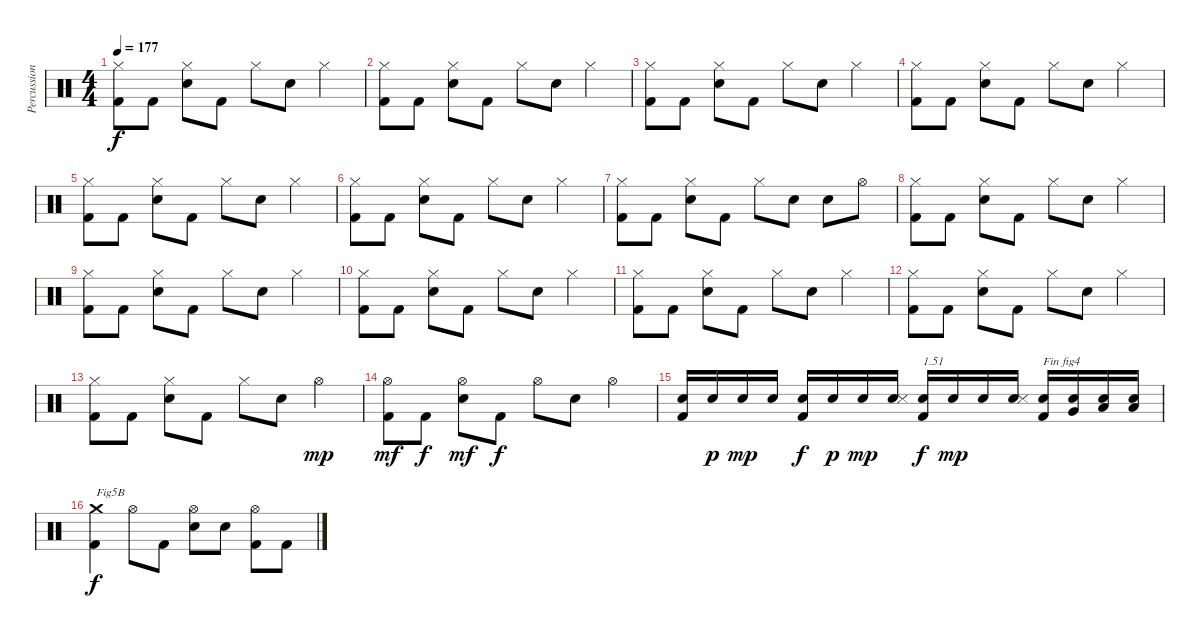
\track ("Percussions" "Percussion") {instrument percussion}
\staff {score}
\articulation defaults
\ts (4 4)
\tempo 177
\clef neutral
\ks c
("Kick (hit) 2" "Hi-Hat (closed)").8{dy f} "Kick (hit) 2".8 ("Electric Snare (hit)" "Hi-Hat (closed)").8 "Kick (hit) 2".8 "Hi-Hat (closed)".8 "Electric Snare (hit)".8 "Hi-Hat (closed)".4 |
("Kick (hit) 2" "Hi-Hat (closed)").8 "Kick (hit) 2".8 ("Electric Snare (hit)" "Hi-Hat (closed)").8 "Kick (hit) 2".8 "Hi-Hat (closed)".8 "Electric Snare (hit)".8 "Hi-Hat (closed)".4 |
("Kick (hit) 2" "Hi-Hat (closed)").8 "Kick (hit) 2".8 ("Electric Snare (hit)" "Hi-Hat (closed)").8 "Kick (hit) 2".8 "Hi-Hat (closed)".8 "Electric Snare (hit)".8 "Hi-Hat (closed)".4 |
("Kick (hit) 2" "Hi-Hat (closed)").8 "Kick (hit) 2".8 ("Electric Snare (hit)" "Hi-Hat (closed)").8 "Kick (hit) 2".8 "Hi-Hat (closed)".8 "Electric Snare (hit)".8 "Hi-Hat (closed)".4 |
("Kick (hit) 2" "Hi-Hat (closed)").8 "Kick (hit) 2".8 ("Electric Snare (hit)" "Hi-Hat (closed)").8 "Kick (hit) 2".8 "Hi-Hat (closed)".8 "Electric Snare (hit)".8 "Hi-Hat (closed)".4 |
("Kick (hit) 2" "Hi-Hat (closed)").8 "Kick (hit) 2".8 ("Electric Snare (hit)" "Hi-Hat (closed)").8 "Kick (hit) 2".8 "Hi-Hat (closed)".8 "Electric Snare (hit)".8 "Hi-Hat (closed)".4 |
("Kick (hit) 2" "Hi-Hat (closed)").8 "Kick (hit) 2".8 ("Electric Snare (hit)" "Hi-Hat (closed)").8 "Kick (hit) 2".8 "Hi-Hat (closed)".8 "Electric Snare (hit)".8 "Electric Snare (hit)".8 "Hi-Hat (open)".8 |
("Kick (hit) 2" "Hi-Hat (closed)").8 "Kick (hit) 2".8 ("Electric Snare (hit)" "Hi-Hat (closed)").8 "Kick (hit) 2".8 "Hi-Hat (closed)".8 "Electric Snare (hit)".8 "Hi-Hat (closed)".4 |
("Kick (hit) 2" "Hi-Hat (closed)").8 "Kick (hit) 2".8 ("Electric Snare (hit)" "Hi-Hat (closed)").8 "Kick (hit) 2".8 "Hi-Hat (closed)".8 "Electric Snare (hit)".8 "Hi-Hat (closed)".4 |
("Kick (hit) 2" "Hi-Hat (closed)").8 "Kick (hit) 2".8 ("Electric Snare (hit)" "Hi-Hat (closed)").8 "Kick (hit) 2".8 "Hi-Hat (closed)".8 "Electric Snare (hit)".8 "Hi-Hat (closed)".4 |
("Kick (hit) 2" "Hi-Hat (closed)").8 "Kick (hit) 2".8 ("Electric Snare (hit)" "Hi-Hat (closed)").8 "Kick (hit) 2".8 "Hi-Hat (closed)".8 "Electric Snare (hit)".8 "Hi-Hat (closed)".4 |
("Kick (hit) 2" "Hi-Hat (closed)").8 "Kick (hit) 2".8 ("Electric Snare (hit)" "Hi-Hat (closed)").8 "Kick (hit) 2".8 "Hi-Hat (closed)".8 "Electric Snare (hit)".8 "Hi-Hat (closed)".4 |
("Kick (hit) 2" "Hi-Hat (closed)").8 "Kick (hit) 2".8 ("Electric Snare (hit)" "Hi-Hat (closed)").8 "Kick (hit) 2".8 "Hi-Hat (closed)".8 "Electric Snare (hit)".8 "Hi-Hat (open)".4{dy mp} |
("Kick (hit) 2" "Hi-Hat (open)").8{dy mf} "Kick (hit) 2".8{dy f} ("Electric Snare (hit)" "Hi-Hat (open)").8{dy mf} "Kick (hit) 2".8{dy f} "Hi-Hat (open)".8 "Electric Snare (hit)".8 "Hi-Hat (open)".4 |
("Kick (hit) 2" "Electric Snare (hit)").16 "Electric Snare (hit)".16{dy p} "Electric Snare (hit)".16{dy mp} "Electric Snare (hit)".16 ("Kick (hit) 2" "Electric Snare (hit)").16{dy f} "Electric Snare (hit)".16{dy p} "Electric Snare (hit)".16{dy mp} ("Electric Snare (hit)" "Snare (side stick) 3").16 ("Kick (hit) 2" "Electric Snare (hit)").16{txt "1.51" dy f} "Electric Snare (hit)".16{dy mp} "Electric Snare (hit)".16 ("Electric Snare (hit)" "Snare (side stick) 3").16 ("Kick (hit) 2" "Electric Snare (hit)").16{txt "Fin fig4"} ("Very Low Tom (hit)" "Electric Snare (hit)").16 ("Low Tom (hit)" "Electric Snare (hit)").16 ("Low Floor Tom (hit)" "Electric Snare (hit)").16 |
("Kick (hit) 2" "Crash medium (hit)").4{txt "Fig5B" dy f} "Hi-Hat (open)".8 "Kick (hit) 2".8 ("Electric Snare (hit)" "Hi-Hat (open)").8 "Electric Snare (hit)".8 ("Kick (hit) 2" "Hi-Hat (open)").8 "Kick (hit) 2".8
